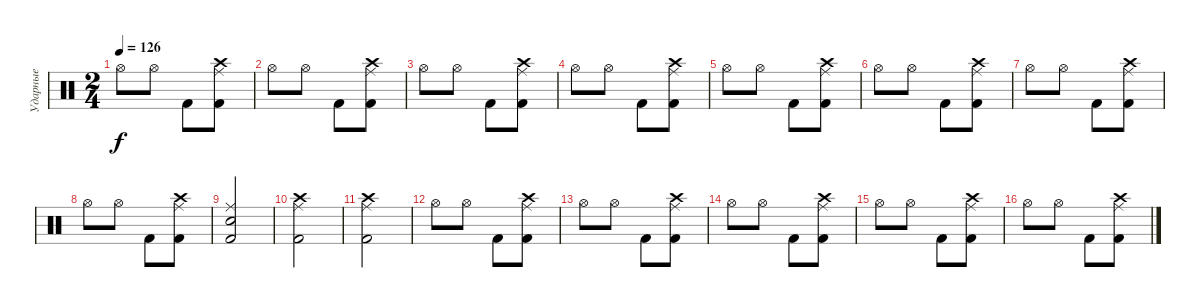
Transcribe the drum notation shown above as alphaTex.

\track ("Ударные" "Ударные") {instrument percussion}
\staff {score}
\articulation defaults
\ts (2 4)
\tempo 126
\clef neutral
\ks c "Hi-Hat (open)".8{dy f} "Hi-Hat (open)".8 "Kick (hit) 2".8
("Crash high (hit)" "Kick (hit) 2" "Ride (middle)").8 |
"Hi-Hat (open)".8 "Hi-Hat (open)".8 "Kick (hit) 2".8 ("Crash high (hit)" "Kick (hit) 2" "Ride (middle)").8 |
"Hi-Hat (open)".8 "Hi-Hat (open)".8 "Kick (hit) 2".8 ("Crash high (hit)" "Kick (hit) 2" "Ride (middle)").8 |
"Hi-Hat (open)".8 "Hi-Hat (open)".8 "Kick (hit) 2".8 ("Crash high (hit)" "Kick (hit) 2" "Ride (middle)").8 |
"Hi-Hat (open)".8 "Hi-Hat (open)".8 "Kick (hit) 2".8 ("Crash high (hit)" "Kick (hit) 2" "Ride (middle)").8 |
"Hi-Hat (open)".8 "Hi-Hat (open)".8 "Kick (hit) 2".8 ("Crash high (hit)" "Kick (hit) 2" "Ride (middle)").8 |
"Hi-Hat (open)".8 "Hi-Hat (open)".8 "Kick (hit) 2".8 ("Crash high (hit)" "Kick (hit) 2" "Ride (middle)").8 |
"Hi-Hat (open)".8 "Hi-Hat (open)".8 "Kick (hit) 2".8 ("Crash high (hit)" "Kick (hit) 2" "Ride (middle)").8 |
("Electric Snare (hit)" "Kick (hit) 2" "Ride (middle)").2 |
("Crash high (hit)" "Kick (hit) 2" "Ride (middle)").2 |
("Crash high (hit)" "Kick (hit) 2" "Ride (middle)").2 |
"Hi-Hat (open)".8 "Hi-Hat (open)".8 "Kick (hit) 2".8 ("Crash high (hit)" "Kick (hit) 2" "Ride (middle)").8 |
"Hi-Hat (open)".8 "Hi-Hat (open)".8 "Kick (hit) 2".8 ("Crash high (hit)" "Kick (hit) 2" "Ride (middle)").8 |
"Hi-Hat (open)".8 "Hi-Hat (open)".8 "Kick (hit) 2".8 ("Crash high (hit)" "Kick (hit) 2" "Ride (middle)").8 |
"Hi-Hat (open)".8 "Hi-Hat (open)".8 "Kick (hit) 2".8 ("Crash high (hit)" "Kick (hit) 2" "Ride (middle)").8 |
"Hi-Hat (open)".8 "Hi-Hat (open)".8 "Kick (hit) 2".8 ("Crash high (hit)" "Kick (hit) 2" "Ride (middle)").8
